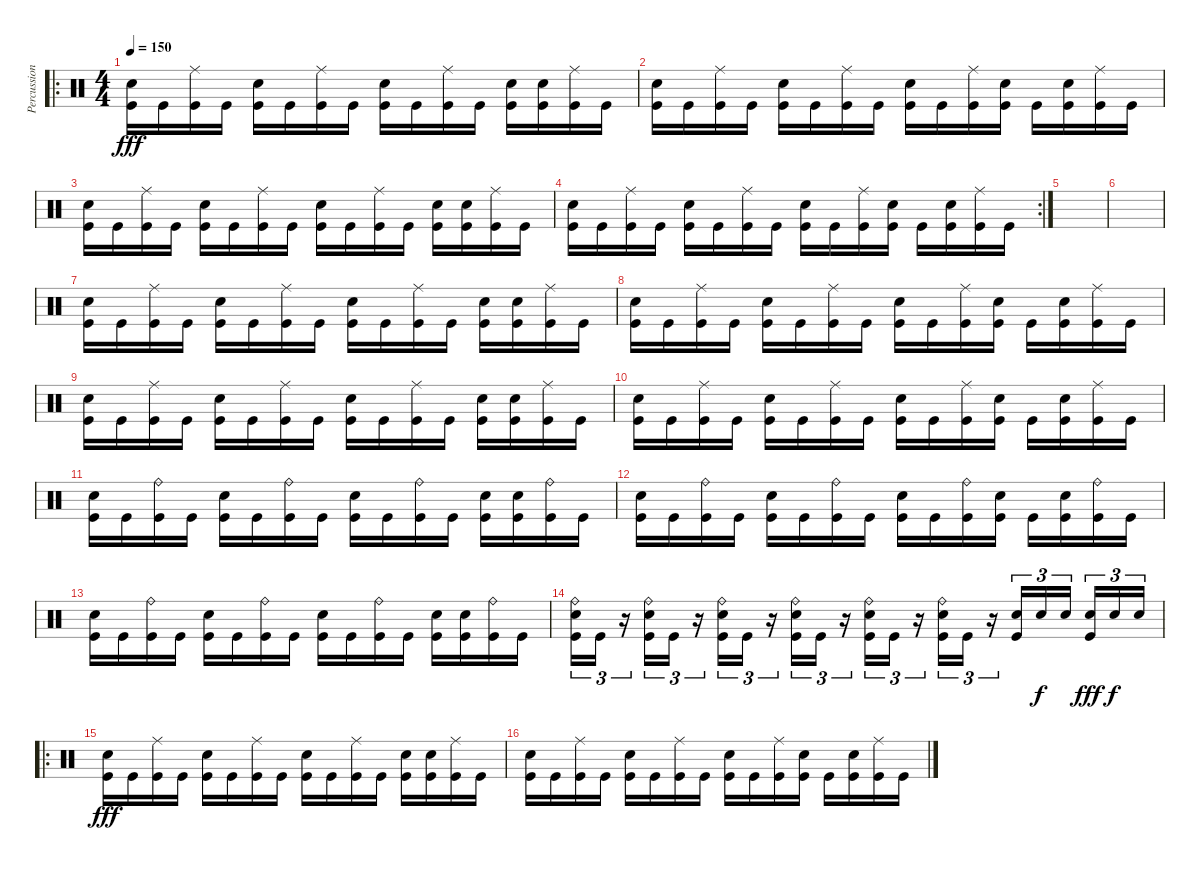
\track ("Percussions" "Percussion") {instrument percussion}
\staff {score}
\articulation defaults
\ro
\ts (4 4)
\tempo 150
\clef neutral
\ks c
("Snare (hit) 2" "Kick (hit)").16{dy fff} "Kick (hit)".16 ("Ride (middle)" "Kick (hit)").16 "Kick (hit)".16 ("Snare (hit) 2" "Kick (hit)").16 "Kick (hit)".16 ("Ride (middle)" "Kick (hit)").16 "Kick (hit)".16 ("Snare (hit) 2" "Kick (hit)").16 "Kick (hit)".16 ("Ride (middle)" "Kick (hit)").16 "Kick (hit)".16 ("Snare (hit) 2" "Kick (hit)").16 ("Snare (hit) 2" "Kick (hit)").16 ("Ride (middle)" "Kick (hit)").16 "Kick (hit)".16 |
("Snare (hit) 2" "Kick (hit)").16 "Kick (hit)".16 ("Ride (middle)" "Kick (hit)").16 "Kick (hit)".16 ("Snare (hit) 2" "Kick (hit)").16 "Kick (hit)".16 ("Ride (middle)" "Kick (hit)").16 "Kick (hit)".16 ("Snare (hit) 2" "Kick (hit)").16 "Kick (hit)".16 ("Ride (middle)" "Kick (hit)").16 ("Snare (hit) 2" "Kick (hit)").16 "Kick (hit)".16 ("Snare (hit) 2" "Kick (hit)").16 ("Ride (middle)" "Kick (hit)").16 "Kick (hit)".16 |
("Snare (hit) 2" "Kick (hit)").16 "Kick (hit)".16 ("Ride (middle)" "Kick (hit)").16 "Kick (hit)".16 ("Snare (hit) 2" "Kick (hit)").16 "Kick (hit)".16 ("Ride (middle)" "Kick (hit)").16 "Kick (hit)".16 ("Snare (hit) 2" "Kick (hit)").16 "Kick (hit)".16 ("Ride (middle)" "Kick (hit)").16 "Kick (hit)".16 ("Snare (hit) 2" "Kick (hit)").16 ("Snare (hit) 2" "Kick (hit)").16 ("Ride (middle)" "Kick (hit)").16 "Kick (hit)".16 |
\rc 2
("Snare (hit) 2" "Kick (hit)").16 "Kick (hit)".16 ("Ride (middle)" "Kick (hit)").16 "Kick (hit)".16 ("Snare (hit) 2" "Kick (hit)").16 "Kick (hit)".16 ("Ride (middle)" "Kick (hit)").16 "Kick (hit)".16 ("Snare (hit) 2" "Kick (hit)").16 "Kick (hit)".16 ("Ride (middle)" "Kick (hit)").16 ("Snare (hit) 2" "Kick (hit)").16 "Kick (hit)".16 ("Snare (hit) 2" "Kick (hit)").16 ("Ride (middle)" "Kick (hit)").16 "Kick (hit)".16 |
|
|
("Snare (hit) 2" "Kick (hit)").16 "Kick (hit)".16 ("Ride (middle)" "Kick (hit)").16 "Kick (hit)".16 ("Snare (hit) 2" "Kick (hit)").16 "Kick (hit)".16 ("Ride (middle)" "Kick (hit)").16 "Kick (hit)".16 ("Snare (hit) 2" "Kick (hit)").16 "Kick (hit)".16 ("Ride (middle)" "Kick (hit)").16 "Kick (hit)".16 ("Snare (hit) 2" "Kick (hit)").16 ("Snare (hit) 2" "Kick (hit)").16 ("Ride (middle)" "Kick (hit)").16 "Kick (hit)".16 |
("Snare (hit) 2" "Kick (hit)").16 "Kick (hit)".16 ("Ride (middle)" "Kick (hit)").16 "Kick (hit)".16 ("Snare (hit) 2" "Kick (hit)").16 "Kick (hit)".16 ("Ride (middle)" "Kick (hit)").16 "Kick (hit)".16 ("Snare (hit) 2" "Kick (hit)").16 "Kick (hit)".16 ("Ride (middle)" "Kick (hit)").16 ("Snare (hit) 2" "Kick (hit)").16 "Kick (hit)".16 ("Snare (hit) 2" "Kick (hit)").16 ("Ride (middle)" "Kick (hit)").16 "Kick (hit)".16 |
("Snare (hit) 2" "Kick (hit)").16 "Kick (hit)".16 ("Ride (middle)" "Kick (hit)").16 "Kick (hit)".16 ("Snare (hit) 2" "Kick (hit)").16 "Kick (hit)".16 ("Ride (middle)" "Kick (hit)").16 "Kick (hit)".16 ("Snare (hit) 2" "Kick (hit)").16 "Kick (hit)".16 ("Ride (middle)" "Kick (hit)").16 "Kick (hit)".16 ("Snare (hit) 2" "Kick (hit)").16 ("Snare (hit) 2" "Kick (hit)").16 ("Ride (middle)" "Kick (hit)").16 "Kick (hit)".16 |
("Snare (hit) 2" "Kick (hit)").16 "Kick (hit)".16 ("Ride (middle)" "Kick (hit)").16 "Kick (hit)".16 ("Snare (hit) 2" "Kick (hit)").16 "Kick (hit)".16 ("Ride (middle)" "Kick (hit)").16 "Kick (hit)".16 ("Snare (hit) 2" "Kick (hit)").16 "Kick (hit)".16 ("Ride (middle)" "Kick (hit)").16 ("Snare (hit) 2" "Kick (hit)").16 "Kick (hit)".16 ("Snare (hit) 2" "Kick (hit)").16 ("Ride (middle)" "Kick (hit)").16 "Kick (hit)".16 |
("Snare (hit) 2" "Kick (hit)").16 "Kick (hit)".16 ("Ride (bell)" "Kick (hit)").16 "Kick (hit)".16 ("Snare (hit) 2" "Kick (hit)").16 "Kick (hit)".16 ("Ride (bell)" "Kick (hit)").16 "Kick (hit)".16 ("Snare (hit) 2" "Kick (hit)").16 "Kick (hit)".16 ("Ride (bell)" "Kick (hit)").16 "Kick (hit)".16 ("Snare (hit) 2" "Kick (hit)").16 ("Snare (hit) 2" "Kick (hit)").16 ("Ride (bell)" "Kick (hit)").16 "Kick (hit)".16 |
("Snare (hit) 2" "Kick (hit)").16 "Kick (hit)".16 ("Ride (bell)" "Kick (hit)").16 "Kick (hit)".16 ("Snare (hit) 2" "Kick (hit)").16 "Kick (hit)".16 ("Ride (bell)" "Kick (hit)").16 "Kick (hit)".16 ("Snare (hit) 2" "Kick (hit)").16 "Kick (hit)".16 ("Ride (bell)" "Kick (hit)").16 ("Snare (hit) 2" "Kick (hit)").16 "Kick (hit)".16 ("Snare (hit) 2" "Kick (hit)").16 ("Ride (bell)" "Kick (hit)").16 "Kick (hit)".16 |
("Snare (hit) 2" "Kick (hit)").16 "Kick (hit)".16 ("Ride (bell)" "Kick (hit)").16 "Kick (hit)".16 ("Snare (hit) 2" "Kick (hit)").16 "Kick (hit)".16 ("Ride (bell)" "Kick (hit)").16 "Kick (hit)".16 ("Snare (hit) 2" "Kick (hit)").16 "Kick (hit)".16 ("Ride (bell)" "Kick (hit)").16 "Kick (hit)".16 ("Snare (hit) 2" "Kick (hit)").16 ("Snare (hit) 2" "Kick (hit)").16 ("Ride (bell)" "Kick (hit)").16 "Kick (hit)".16 |
("Ride (bell)" "Snare (hit) 2" "Kick (hit)").16{tu (3 2)} "Kick (hit)".16{tu (3 2)} r.16{tu (3 2)} ("Ride (bell)" "Snare (hit) 2" "Kick (hit)").16{tu (3 2)} "Kick (hit)".16{tu (3 2)} r.16{tu (3 2)} ("Ride (bell)" "Snare (hit) 2" "Kick (hit)").16{tu (3 2)} "Kick (hit)".16{tu (3 2)} r.16{tu (3 2)} ("Ride (bell)" "Snare (hit) 2" "Kick (hit)").16{tu (3 2)} "Kick (hit)".16{tu (3 2)} r.16{tu (3 2)} ("Ride (bell)" "Snare (hit) 2" "Kick (hit)").16{tu (3 2)} "Kick (hit)".16{tu (3 2)} r.16{tu (3 2)} ("Ride (bell)" "Snare (hit) 2" "Kick (hit)").16{tu (3 2)} "Kick (hit)".16{tu (3 2)} r.16{tu (3 2)} ("Snare (hit) 2" "Kick (hit)").16{tu (3 2)} "Snare (hit) 2".16{tu (3 2) dy f} "Snare (hit) 2".16{tu (3 2)} ("Snare (hit) 2" "Kick (hit)").16{tu (3 2) dy fff} "Snare (hit) 2".16{tu (3 2) dy f} "Snare (hit) 2".16{tu (3 2)} |
\ro
("Snare (hit) 2" "Kick (hit)").16{dy fff} "Kick (hit)".16 ("Ride (middle)" "Kick (hit)").16 "Kick (hit)".16 ("Snare (hit) 2" "Kick (hit)").16 "Kick (hit)".16 ("Ride (middle)" "Kick (hit)").16 "Kick (hit)".16 ("Snare (hit) 2" "Kick (hit)").16 "Kick (hit)".16 ("Ride (middle)" "Kick (hit)").16 "Kick (hit)".16 ("Snare (hit) 2" "Kick (hit)").16 ("Snare (hit) 2" "Kick (hit)").16 ("Ride (middle)" "Kick (hit)").16 "Kick (hit)".16 |
("Snare (hit) 2" "Kick (hit)").16 "Kick (hit)".16 ("Ride (middle)" "Kick (hit)").16 "Kick (hit)".16 ("Snare (hit) 2" "Kick (hit)").16 "Kick (hit)".16 ("Ride (middle)" "Kick (hit)").16 "Kick (hit)".16 ("Snare (hit) 2" "Kick (hit)").16 "Kick (hit)".16 ("Ride (middle)" "Kick (hit)").16 ("Snare (hit) 2" "Kick (hit)").16 "Kick (hit)".16 ("Snare (hit) 2" "Kick (hit)").16 ("Ride (middle)" "Kick (hit)").16 "Kick (hit)".16
